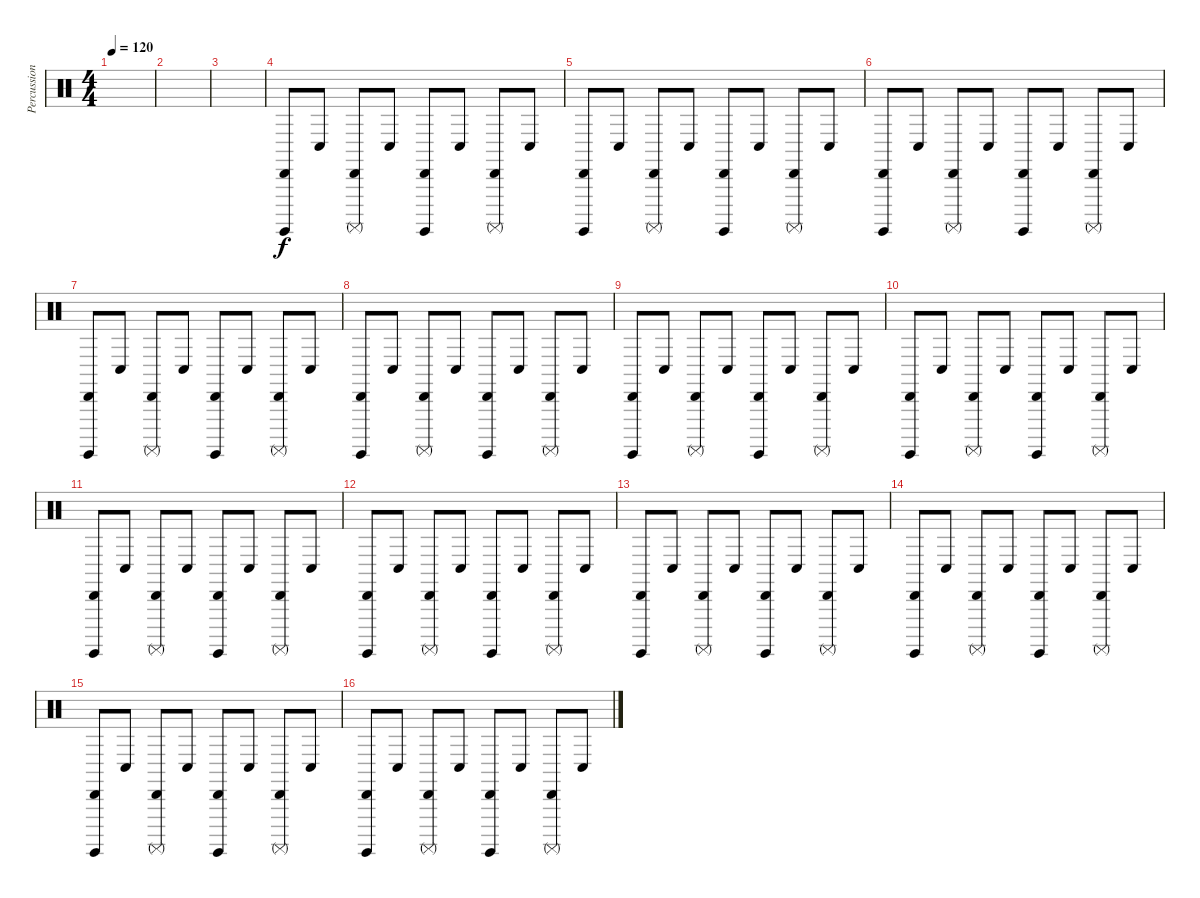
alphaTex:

\track ("Percussion" "Percussion") {instrument percussion}
\staff {score}
\articulation defaults
\ts (4 4)
\tempo 120
\clef neutral
\ks c
|
|
|
("Surdo (hit)" "Cabasa (hit)").8 "Conga low (hit)".8 ("Surdo (mute)" "Cabasa (hit)").8 "Conga low (hit)".8 ("Surdo (hit)" "Cabasa (hit)").8 "Conga low (hit)".8 ("Surdo (mute)" "Cabasa (hit)").8 "Conga low (hit)".8 |
("Surdo (hit)" "Cabasa (hit)").8 "Conga low (hit)".8 ("Surdo (mute)" "Cabasa (hit)").8 "Conga low (hit)".8 ("Surdo (hit)" "Cabasa (hit)").8 "Conga low (hit)".8 ("Surdo (mute)" "Cabasa (hit)").8 "Conga low (hit)".8 |
("Surdo (hit)" "Cabasa (hit)").8 "Conga low (hit)".8 ("Surdo (mute)" "Cabasa (hit)").8 "Conga low (hit)".8 ("Surdo (hit)" "Cabasa (hit)").8 "Conga low (hit)".8 ("Surdo (mute)" "Cabasa (hit)").8 "Conga low (hit)".8 |
("Surdo (hit)" "Cabasa (hit)").8 "Conga low (hit)".8 ("Surdo (mute)" "Cabasa (hit)").8 "Conga low (hit)".8 ("Surdo (hit)" "Cabasa (hit)").8 "Conga low (hit)".8 ("Surdo (mute)" "Cabasa (hit)").8 "Conga low (hit)".8 |
("Surdo (hit)" "Cabasa (hit)").8 "Conga low (hit)".8 ("Surdo (mute)" "Cabasa (hit)").8 "Conga low (hit)".8 ("Surdo (hit)" "Cabasa (hit)").8 "Conga low (hit)".8 ("Surdo (mute)" "Cabasa (hit)").8 "Conga low (hit)".8 |
("Surdo (hit)" "Cabasa (hit)").8 "Conga low (hit)".8 ("Surdo (mute)" "Cabasa (hit)").8 "Conga low (hit)".8 ("Surdo (hit)" "Cabasa (hit)").8 "Conga low (hit)".8 ("Surdo (mute)" "Cabasa (hit)").8 "Conga low (hit)".8 |
("Surdo (hit)" "Cabasa (hit)").8 "Conga low (hit)".8 ("Surdo (mute)" "Cabasa (hit)").8 "Conga low (hit)".8 ("Surdo (hit)" "Cabasa (hit)").8 "Conga low (hit)".8 ("Surdo (mute)" "Cabasa (hit)").8 "Conga low (hit)".8 |
("Surdo (hit)" "Cabasa (hit)").8 "Conga low (hit)".8 ("Surdo (mute)" "Cabasa (hit)").8 "Conga low (hit)".8 ("Surdo (hit)" "Cabasa (hit)").8 "Conga low (hit)".8 ("Surdo (mute)" "Cabasa (hit)").8 "Conga low (hit)".8 |
("Surdo (hit)" "Cabasa (hit)").8 "Conga low (hit)".8 ("Surdo (mute)" "Cabasa (hit)").8 "Conga low (hit)".8 ("Surdo (hit)" "Cabasa (hit)").8 "Conga low (hit)".8 ("Surdo (mute)" "Cabasa (hit)").8 "Conga low (hit)".8 |
("Surdo (hit)" "Cabasa (hit)").8 "Conga low (hit)".8 ("Surdo (mute)" "Cabasa (hit)").8 "Conga low (hit)".8 ("Surdo (hit)" "Cabasa (hit)").8 "Conga low (hit)".8 ("Surdo (mute)" "Cabasa (hit)").8 "Conga low (hit)".8 |
("Surdo (hit)" "Cabasa (hit)").8 "Conga low (hit)".8 ("Surdo (mute)" "Cabasa (hit)").8 "Conga low (hit)".8 ("Surdo (hit)" "Cabasa (hit)").8 "Conga low (hit)".8 ("Surdo (mute)" "Cabasa (hit)").8 "Conga low (hit)".8 |
("Surdo (hit)" "Cabasa (hit)").8 "Conga low (hit)".8 ("Surdo (mute)" "Cabasa (hit)").8 "Conga low (hit)".8 ("Surdo (hit)" "Cabasa (hit)").8 "Conga low (hit)".8 ("Surdo (mute)" "Cabasa (hit)").8 "Conga low (hit)".8 |
("Surdo (hit)" "Cabasa (hit)").8 "Conga low (hit)".8 ("Surdo (mute)" "Cabasa (hit)").8 "Conga low (hit)".8 ("Surdo (hit)" "Cabasa (hit)").8 "Conga low (hit)".8 ("Surdo (mute)" "Cabasa (hit)").8 "Conga low (hit)".8
